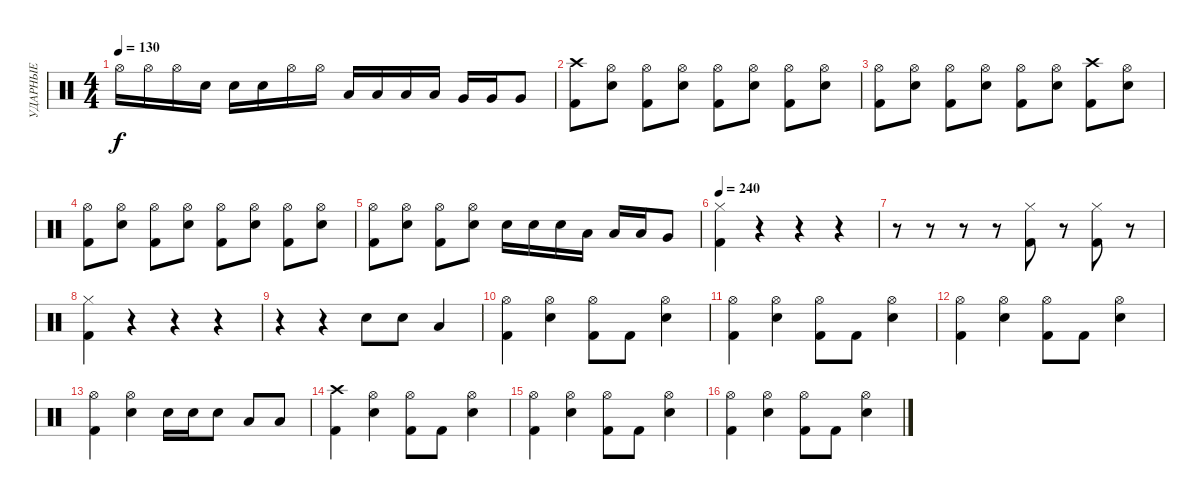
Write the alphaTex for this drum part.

\track ("УДАРНЫЕ" "УДАРНЫЕ") {instrument percussion}
\staff {score}
\articulation defaults
\ts (4 4)
\tempo 130
\clef neutral
\ks c "Hi-Hat (open)".16{dy f} "Hi-Hat (open)".16 "Hi-Hat (open)".16 "Snare (hit) 2".16 "Snare (hit) 2".16 "Snare (hit) 2".16 "Hi-Hat (open)".16 "Hi-Hat (open)".16 "Low Tom (hit)".16 "Low Tom (hit)".16 "Low Tom (hit)".16 "Low Tom (hit)".16 "Very Low Tom (hit)".16 "Very Low Tom (hit)".16 "Very Low Tom (hit)".8
|
("Crash high (hit)" "Kick (hit) 2").8 ("Hi-Hat (open)" "Snare (hit) 2").8 ("Hi-Hat (open)" "Kick (hit) 2").8 ("Hi-Hat (open)" "Snare (hit) 2").8 ("Hi-Hat (open)" "Kick (hit) 2").8 ("Hi-Hat (open)" "Snare (hit) 2").8 ("Hi-Hat (open)" "Kick (hit) 2").8 ("Hi-Hat (open)" "Snare (hit) 2").8 |
("Hi-Hat (open)" "Kick (hit) 2").8 ("Hi-Hat (open)" "Snare (hit) 2").8 ("Hi-Hat (open)" "Kick (hit) 2").8 ("Hi-Hat (open)" "Snare (hit) 2").8 ("Hi-Hat (open)" "Kick (hit) 2").8 ("Hi-Hat (open)" "Snare (hit) 2").8 ("Crash high (hit)" "Kick (hit) 2").8 ("Hi-Hat (open)" "Snare (hit) 2").8 |
("Hi-Hat (open)" "Kick (hit) 2").8 ("Hi-Hat (open)" "Snare (hit) 2").8 ("Hi-Hat (open)" "Kick (hit) 2").8 ("Hi-Hat (open)" "Snare (hit) 2").8 ("Hi-Hat (open)" "Kick (hit) 2").8 ("Hi-Hat (open)" "Snare (hit) 2").8 ("Hi-Hat (open)" "Kick (hit) 2").8 ("Hi-Hat (open)" "Snare (hit) 2").8 |
("Hi-Hat (open)" "Kick (hit) 2").8 ("Hi-Hat (open)" "Snare (hit) 2").8 ("Hi-Hat (open)" "Kick (hit) 2").8 ("Hi-Hat (open)" "Snare (hit) 2").8 "Snare (hit) 2".16 "Snare (hit) 2".16 "Snare (hit) 2".16 "Low Tom (hit)".16 "Low Tom (hit)".16 "Low Tom (hit)".16 "Very Low Tom (hit)".8 |
\tempo 240
("Hi-Hat (closed)" "Kick (hit) 2").4 r.4 r.4 r.4 |
r.8 r.8 r.8 r.8 ("Hi-Hat (closed)" "Kick (hit) 2").8 r.8 ("Hi-Hat (closed)" "Kick (hit) 2").8 r.8 |
("Hi-Hat (closed)" "Kick (hit) 2").4 r.4 r.4 r.4 |
r.4 r.4 "Snare (hit) 2".8 "Snare (hit) 2".8 "Low Tom (hit)".4 |
("Kick (hit) 2" "Hi-Hat (open)").4 ("Snare (hit) 2" "Hi-Hat (open)").4 ("Kick (hit) 2" "Hi-Hat (open)").8 "Kick (hit) 2".8 ("Snare (hit) 2" "Hi-Hat (open)").4 |
("Kick (hit) 2" "Hi-Hat (open)").4 ("Snare (hit) 2" "Hi-Hat (open)").4 ("Kick (hit) 2" "Hi-Hat (open)").8 "Kick (hit) 2".8 ("Snare (hit) 2" "Hi-Hat (open)").4 |
("Kick (hit) 2" "Hi-Hat (open)").4 ("Snare (hit) 2" "Hi-Hat (open)").4 ("Kick (hit) 2" "Hi-Hat (open)").8 "Kick (hit) 2".8 ("Snare (hit) 2" "Hi-Hat (open)").4 |
("Kick (hit) 2" "Hi-Hat (open)").4 ("Snare (hit) 2" "Hi-Hat (open)").4 "Snare (hit) 2".16 "Snare (hit) 2".16 "Snare (hit) 2".8 "Low Tom (hit)".8 "Low Tom (hit)".8 |
("Kick (hit) 2" "Crash high (hit)").4 ("Snare (hit) 2" "Hi-Hat (open)").4 ("Kick (hit) 2" "Hi-Hat (open)").8 "Kick (hit) 2".8 ("Snare (hit) 2" "Hi-Hat (open)").4 |
("Kick (hit) 2" "Hi-Hat (open)").4 ("Snare (hit) 2" "Hi-Hat (open)").4 ("Kick (hit) 2" "Hi-Hat (open)").8 "Kick (hit) 2".8 ("Snare (hit) 2" "Hi-Hat (open)").4 |
("Kick (hit) 2" "Hi-Hat (open)").4 ("Snare (hit) 2" "Hi-Hat (open)").4 ("Kick (hit) 2" "Hi-Hat (open)").8 "Kick (hit) 2".8 ("Snare (hit) 2" "Hi-Hat (open)").4
